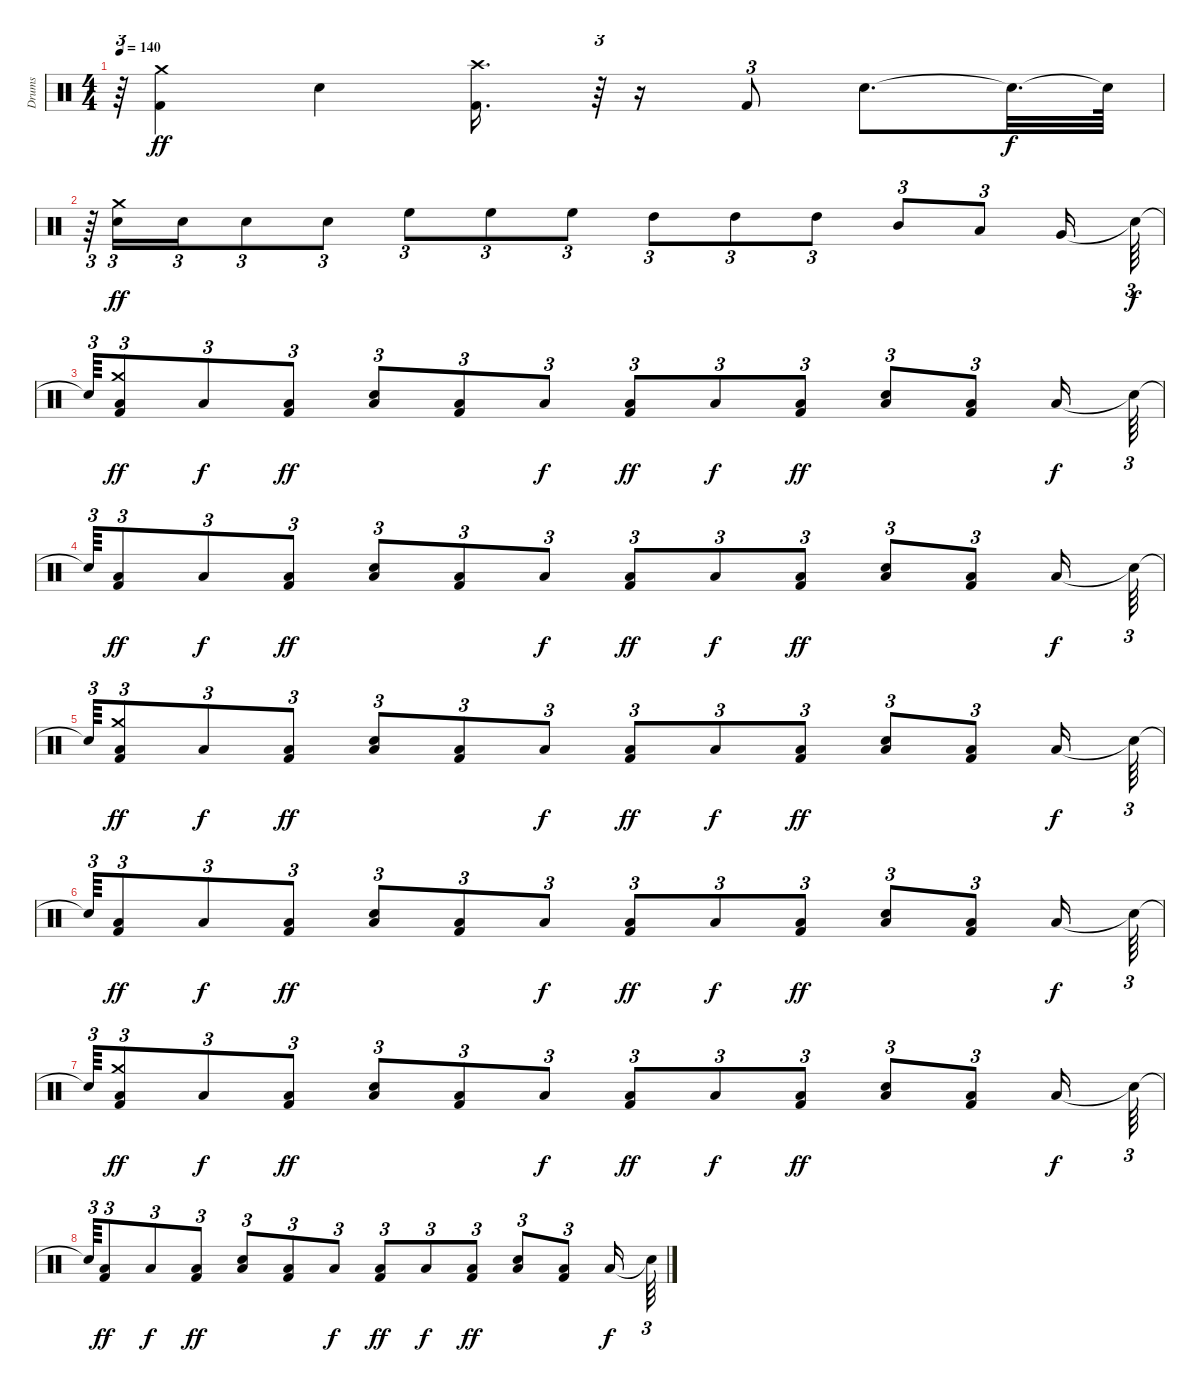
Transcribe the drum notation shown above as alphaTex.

\track ("Drums" "Drums") {instrument percussion}
\staff {score}
\articulation defaults
\ts (4 4)
\tempo 140
\clef neutral
\ks c
r.64{tu (3 2) dy f} ("Kick (hit) 2" "Crash medium (hit)").4{dy ff} "Snare (hit) 2".4 ("Kick (hit) 2" "Crash high (hit)").16{d} r.64{tu (3 2)} r.16 "Kick (hit) 2".8{tu (3 2)} "Snare (hit) 2".8{d} "Snare (hit)"{t}.32{d dy f} "Snare (hit)"{t}.64 |
r.64{tu (3 2)} ("Snare (hit) 2" "Crash medium (hit)").16{tu (3 2) dy ff} "Snare (hit) 2".16{tu (3 2)} "Snare (hit) 2".8{tu (3 2)} "Snare (hit) 2".8{tu (3 2)} "High Floor Tom (hit)".8{tu (3 2)} "High Floor Tom (hit)".8{tu (3 2)} "High Floor Tom (hit)".8{tu (3 2)} "High Tom (hit)".8{tu (3 2)} "High Tom (hit)".8{tu (3 2)} "High Tom (hit)".8{tu (3 2)} "Mid Tom (hit)".8{tu (3 2)} "Low Tom (hit)".8{tu (3 2)} "Very Low Tom (hit)".16 "Snare (hit)"{t}.64{tu (3 2) dy f} |
"Snare (hit)"{t}.64{tu (3 2)} ("Kick (hit) 2" "Crash medium (hit)" "Low Floor Tom (hit)").8{tu (3 2) dy ff} "Low Floor Tom (hit)".8{tu (3 2) dy f} ("Kick (hit) 2" "Low Floor Tom (hit)").8{tu (3 2) dy ff} ("Snare (hit) 2" "Low Floor Tom (hit)").8{tu (3 2)} ("Kick (hit) 2" "Low Floor Tom (hit)").8{tu (3 2)} "Low Floor Tom (hit)".8{tu (3 2) dy f} ("Kick (hit) 2" "Low Floor Tom (hit)").8{tu (3 2) dy ff} "Low Floor Tom (hit)".8{tu (3 2) dy f} ("Kick (hit) 2" "Low Floor Tom (hit)").8{tu (3 2) dy ff} ("Snare (hit) 2" "Low Floor Tom (hit)").8{tu (3 2)} ("Kick (hit) 2" "Low Floor Tom (hit)").8{tu (3 2)} "Low Floor Tom (hit)".16{dy f} "Snare (hit)"{t}.64{tu (3 2)} |
"Snare (hit)"{t}.64{tu (3 2)} ("Kick (hit) 2" "Low Floor Tom (hit)").8{tu (3 2) dy ff} "Low Floor Tom (hit)".8{tu (3 2) dy f} ("Kick (hit) 2" "Low Floor Tom (hit)").8{tu (3 2) dy ff} ("Snare (hit) 2" "Low Floor Tom (hit)").8{tu (3 2)} ("Kick (hit) 2" "Low Floor Tom (hit)").8{tu (3 2)} "Low Floor Tom (hit)".8{tu (3 2) dy f} ("Kick (hit) 2" "Low Floor Tom (hit)").8{tu (3 2) dy ff} "Low Floor Tom (hit)".8{tu (3 2) dy f} ("Kick (hit) 2" "Low Floor Tom (hit)").8{tu (3 2) dy ff} ("Snare (hit) 2" "Low Floor Tom (hit)").8{tu (3 2)} ("Kick (hit) 2" "Low Floor Tom (hit)").8{tu (3 2)} "Low Floor Tom (hit)".16{dy f} "Snare (hit)"{t}.64{tu (3 2)} |
"Snare (hit)"{t}.64{tu (3 2)} ("Kick (hit) 2" "Crash medium (hit)" "Low Floor Tom (hit)").8{tu (3 2) dy ff} "Low Floor Tom (hit)".8{tu (3 2) dy f} ("Kick (hit) 2" "Low Floor Tom (hit)").8{tu (3 2) dy ff} ("Snare (hit) 2" "Low Floor Tom (hit)").8{tu (3 2)} ("Kick (hit) 2" "Low Floor Tom (hit)").8{tu (3 2)} "Low Floor Tom (hit)".8{tu (3 2) dy f} ("Kick (hit) 2" "Low Floor Tom (hit)").8{tu (3 2) dy ff} "Low Floor Tom (hit)".8{tu (3 2) dy f} ("Kick (hit) 2" "Low Floor Tom (hit)").8{tu (3 2) dy ff} ("Snare (hit) 2" "Low Floor Tom (hit)").8{tu (3 2)} ("Kick (hit) 2" "Low Floor Tom (hit)").8{tu (3 2)} "Low Floor Tom (hit)".16{dy f} "Snare (hit)"{t}.64{tu (3 2)} |
"Snare (hit)"{t}.64{tu (3 2)} ("Kick (hit) 2" "Low Floor Tom (hit)").8{tu (3 2) dy ff} "Low Floor Tom (hit)".8{tu (3 2) dy f} ("Kick (hit) 2" "Low Floor Tom (hit)").8{tu (3 2) dy ff} ("Snare (hit) 2" "Low Floor Tom (hit)").8{tu (3 2)} ("Kick (hit) 2" "Low Floor Tom (hit)").8{tu (3 2)} "Low Floor Tom (hit)".8{tu (3 2) dy f} ("Kick (hit) 2" "Low Floor Tom (hit)").8{tu (3 2) dy ff} "Low Floor Tom (hit)".8{tu (3 2) dy f} ("Kick (hit) 2" "Low Floor Tom (hit)").8{tu (3 2) dy ff} ("Snare (hit) 2" "Low Floor Tom (hit)").8{tu (3 2)} ("Kick (hit) 2" "Low Floor Tom (hit)").8{tu (3 2)} "Low Floor Tom (hit)".16{dy f} "Snare (hit)"{t}.64{tu (3 2)} |
"Snare (hit)"{t}.64{tu (3 2)} ("Kick (hit) 2" "Crash medium (hit)" "Low Floor Tom (hit)").8{tu (3 2) dy ff} "Low Floor Tom (hit)".8{tu (3 2) dy f} ("Kick (hit) 2" "Low Floor Tom (hit)").8{tu (3 2) dy ff} ("Snare (hit) 2" "Low Floor Tom (hit)").8{tu (3 2)} ("Kick (hit) 2" "Low Floor Tom (hit)").8{tu (3 2)} "Low Floor Tom (hit)".8{tu (3 2) dy f} ("Kick (hit) 2" "Low Floor Tom (hit)").8{tu (3 2) dy ff} "Low Floor Tom (hit)".8{tu (3 2) dy f} ("Kick (hit) 2" "Low Floor Tom (hit)").8{tu (3 2) dy ff} ("Snare (hit) 2" "Low Floor Tom (hit)").8{tu (3 2)} ("Kick (hit) 2" "Low Floor Tom (hit)").8{tu (3 2)} "Low Floor Tom (hit)".16{dy f} "Snare (hit)"{t}.64{tu (3 2)} |
"Snare (hit)"{t}.64{tu (3 2)} ("Kick (hit) 2" "Low Floor Tom (hit)").8{tu (3 2) dy ff} "Low Floor Tom (hit)".8{tu (3 2) dy f} ("Kick (hit) 2" "Low Floor Tom (hit)").8{tu (3 2) dy ff} ("Snare (hit) 2" "Low Floor Tom (hit)").8{tu (3 2)} ("Kick (hit) 2" "Low Floor Tom (hit)").8{tu (3 2)} "Low Floor Tom (hit)".8{tu (3 2) dy f} ("Kick (hit) 2" "Low Floor Tom (hit)").8{tu (3 2) dy ff} "Low Floor Tom (hit)".8{tu (3 2) dy f} ("Kick (hit) 2" "Low Floor Tom (hit)").8{tu (3 2) dy ff} ("Snare (hit) 2" "Low Floor Tom (hit)").8{tu (3 2)} ("Kick (hit) 2" "Low Floor Tom (hit)").8{tu (3 2)} "Low Floor Tom (hit)".16{dy f} "Snare (hit)"{t}.64{tu (3 2)}
